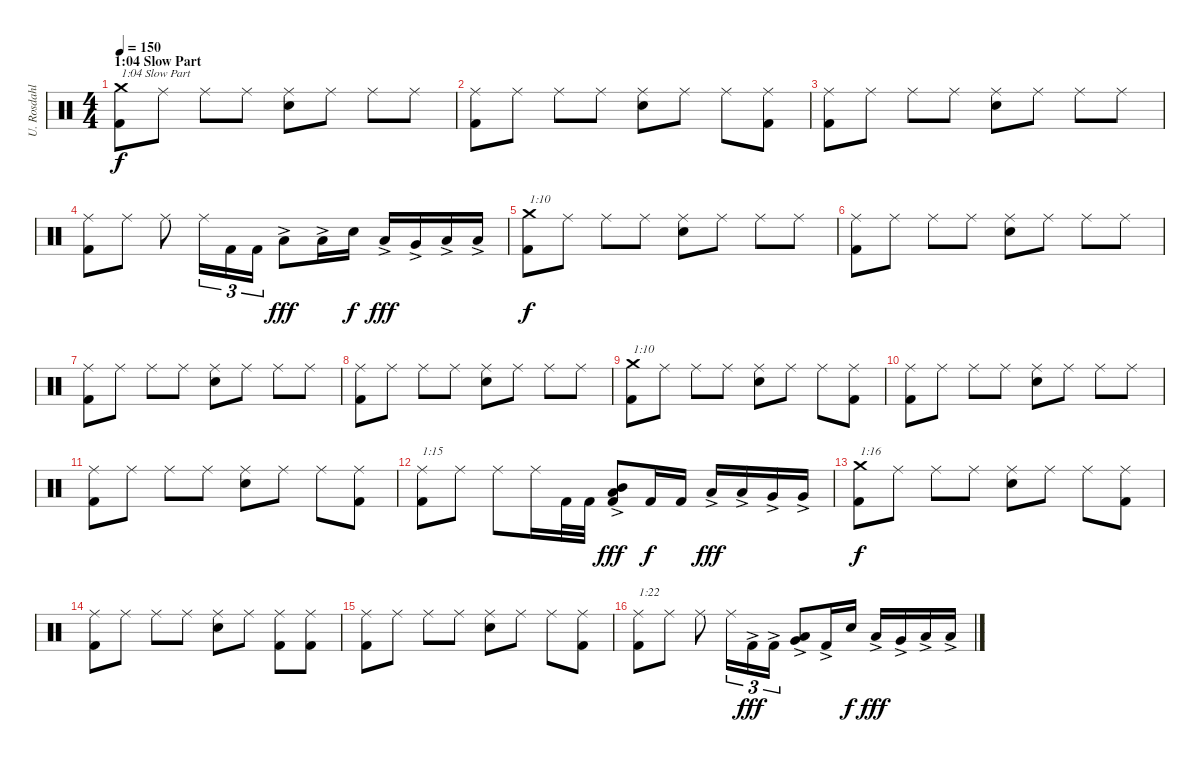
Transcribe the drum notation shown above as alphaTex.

\track ("U. Rosdahl" "U. Rosdahl") {instrument percussion}
\staff {score}
\articulation defaults
\ts (4 4)
\section ("" "1:04 Slow Part")
\tempo 150
\clef neutral
\ks c
("Kick (hit) 2" "Crash medium (hit)").8{txt "1:04 Slow Part" dy f} "Ride (middle)".8 "Ride (middle)".8 "Ride (middle)".8 ("Electric Snare (hit)" "Ride (middle)").8 "Ride (middle)".8 "Ride (middle)".8 "Ride (middle)".8 |
("Kick (hit) 2" "Ride (middle)").8 "Ride (middle)".8 "Ride (middle)".8 "Ride (middle)".8 ("Electric Snare (hit)" "Ride (middle)").8 "Ride (middle)".8 "Ride (middle)".8 ("Kick (hit) 2" "Ride (middle)").8 |
("Kick (hit) 2" "Ride (middle)").8 "Ride (middle)".8 "Ride (middle)".8 "Ride (middle)".8 ("Electric Snare (hit)" "Ride (middle)").8 "Ride (middle)".8 "Ride (middle)".8 "Ride (middle)".8 |
("Kick (hit) 2" "Ride (middle)").8 "Ride (middle)".8 "Ride (middle)".8 "Ride (middle)".16{tu (3 2)} "Kick (hit) 2".16{tu (3 2)} "Kick (hit) 2".16{tu (3 2)} "Low Tom (hit)"{ac}.8{dy fff} "Low Tom (hit)"{ac}.16 "Electric Snare (hit)".16{dy f} "Low Tom (hit)"{ac}.16{dy fff} "Very Low Tom (hit)"{ac}.16 "Low Floor Tom (hit)"{ac}.16 "Low Floor Tom (hit)"{ac}.16 |
("Kick (hit) 2" "Crash medium (hit)").8{txt "1:10" dy f} "Ride (middle)".8 "Ride (middle)".8 "Ride (middle)".8 ("Electric Snare (hit)" "Ride (middle)").8 "Ride (middle)".8 "Ride (middle)".8 "Ride (middle)".8 |
("Kick (hit) 2" "Ride (middle)").8 "Ride (middle)".8 "Ride (middle)".8 "Ride (middle)".8 ("Electric Snare (hit)" "Ride (middle)").8 "Ride (middle)".8 "Ride (middle)".8 "Ride (middle)".8 |
("Kick (hit) 2" "Ride (middle)").8 "Ride (middle)".8 "Ride (middle)".8 "Ride (middle)".8 ("Electric Snare (hit)" "Ride (middle)").8 "Ride (middle)".8 "Ride (middle)".8 "Ride (middle)".8 |
("Kick (hit) 2" "Ride (middle)").8 "Ride (middle)".8 "Ride (middle)".8 "Ride (middle)".8 ("Electric Snare (hit)" "Ride (middle)").8 "Ride (middle)".8 "Ride (middle)".8 "Ride (middle)".8 |
("Kick (hit) 2" "Crash medium (hit)").8{txt "1:10"} "Ride (middle)".8 "Ride (middle)".8 "Ride (middle)".8 ("Electric Snare (hit)" "Ride (middle)").8 "Ride (middle)".8 "Ride (middle)".8 ("Kick (hit) 2" "Ride (middle)").8 |
("Kick (hit) 2" "Ride (middle)").8 "Ride (middle)".8 "Ride (middle)".8 "Ride (middle)".8 ("Electric Snare (hit)" "Ride (middle)").8 "Ride (middle)".8 "Ride (middle)".8 "Ride (middle)".8 |
("Kick (hit) 2" "Ride (middle)").8 "Ride (middle)".8 "Ride (middle)".8 "Ride (middle)".8 ("Electric Snare (hit)" "Ride (middle)").8 "Ride (middle)".8 "Ride (middle)".8 ("Kick (hit) 2" "Ride (middle)").8 |
("Kick (hit) 2" "Ride (middle)").8{txt "1:15"} "Ride (middle)".8 "Ride (middle)".8 "Ride (middle)".16 "Kick (hit) 2".32 "Kick (hit) 2".32 ("Kick (hit) 2" "Low Tom (hit)"{ac} "Mid Tom (hit)"{ac}).8{dy fff} "Kick (hit) 2".16{dy f} "Kick (hit) 2".16 "Low Tom (hit)"{ac}.16{dy fff} "Low Tom (hit)"{ac}.16 "Very Low Tom (hit)"{ac}.16 "Very Low Tom (hit)"{ac}.16 |
("Kick (hit) 2" "Crash medium (hit)").8{txt "1:16" dy f} "Ride (middle)".8 "Ride (middle)".8 "Ride (middle)".8 ("Electric Snare (hit)" "Ride (middle)").8 "Ride (middle)".8 "Ride (middle)".8 ("Kick (hit) 2" "Ride (middle)").8 |
("Kick (hit) 2" "Ride (middle)").8 "Ride (middle)".8 "Ride (middle)".8 "Ride (middle)".8 ("Electric Snare (hit)" "Ride (middle)").8 "Ride (middle)".8 ("Kick (hit) 2" "Ride (middle)").8 ("Kick (hit) 2" "Ride (middle)").8 |
("Kick (hit) 2" "Ride (middle)").8 "Ride (middle)".8 "Ride (middle)".8 "Ride (middle)".8 ("Electric Snare (hit)" "Ride (middle)").8 "Ride (middle)".8 "Ride (middle)".8 ("Kick (hit) 2" "Ride (middle)").8 |
("Kick (hit) 2" "Ride (middle)").8{txt "1:22"} "Ride (middle)".8 "Ride (middle)".8 "Ride (middle)".16{tu (3 2)} "Kick (hit) 2"{ac}.16{tu (3 2) dy fff} "Kick (hit) 2"{ac}.16{tu (3 2)} ("Low Tom (hit)"{ac} "Very Low Tom (hit)"{ac}).8 "Kick (hit) 2"{ac}.16 "Electric Snare (hit)".16{dy f} "Low Tom (hit)"{ac}.16{dy fff} "Very Low Tom (hit)"{ac}.16 "Low Floor Tom (hit)"{ac}.16 "Low Floor Tom (hit)"{ac}.16
